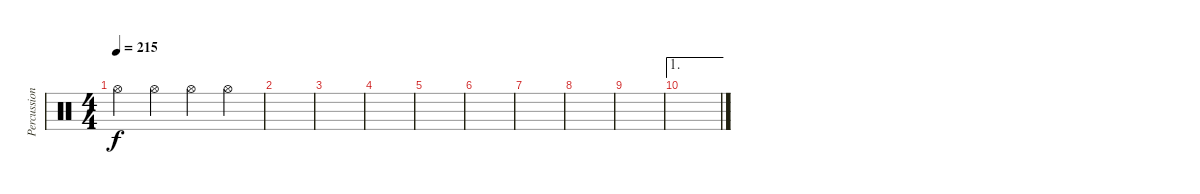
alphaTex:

\track ("Percussion" "Percussion") {instrument percussion}
\staff {score}
\articulation defaults
\ts (4 4)
\tempo 215
\clef neutral
\ks c "Hi-Hat (open)".4{dy f} "Hi-Hat (open)".4 "Hi-Hat (open)".4 "Hi-Hat (open)".4
|
|
|
|
|
|
|
|
|
\ae 1
